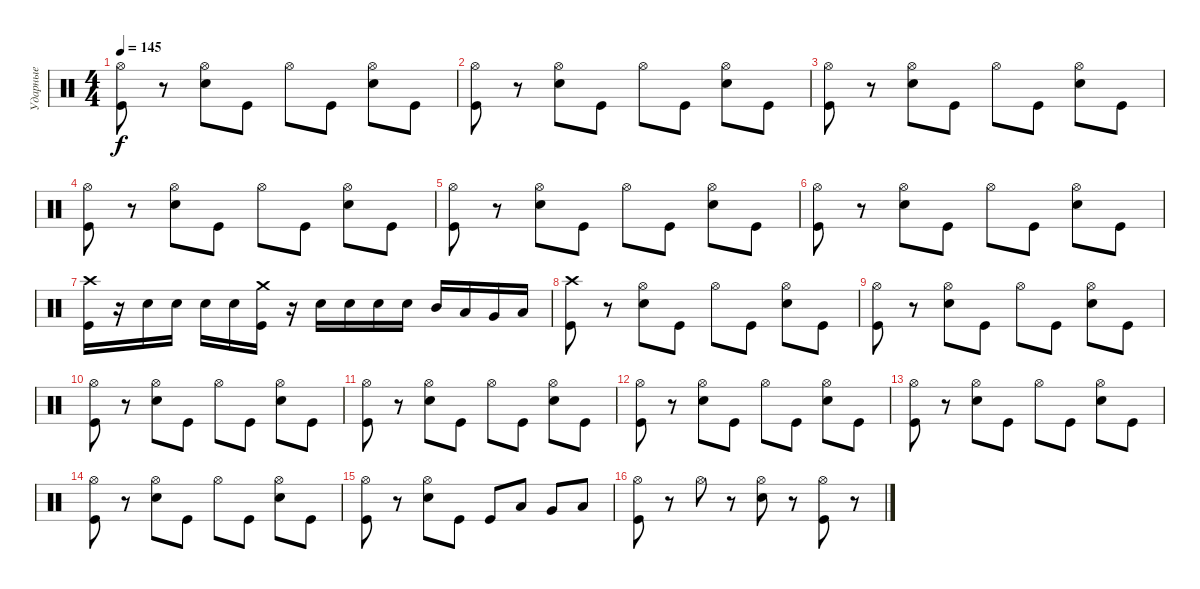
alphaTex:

\track ("Ударные" "Ударные") {instrument percussion}
\staff {score}
\articulation defaults
\ts (4 4)
\tempo 145
\clef neutral
\ks c
("Hi-Hat (open)" "Kick (hit)").8{dy f} r.8 ("Hi-Hat (open)" "Electric Snare (hit)").8 "Kick (hit)".8 "Hi-Hat (open)".8 "Kick (hit)".8 ("Hi-Hat (open)" "Electric Snare (hit)").8 "Kick (hit)".8 |
("Hi-Hat (open)" "Kick (hit)").8 r.8 ("Hi-Hat (open)" "Electric Snare (hit)").8 "Kick (hit)".8 "Hi-Hat (open)".8 "Kick (hit)".8 ("Hi-Hat (open)" "Electric Snare (hit)").8 "Kick (hit)".8 |
("Hi-Hat (open)" "Kick (hit)").8 r.8 ("Hi-Hat (open)" "Electric Snare (hit)").8 "Kick (hit)".8 "Hi-Hat (open)".8 "Kick (hit)".8 ("Hi-Hat (open)" "Electric Snare (hit)").8 "Kick (hit)".8 |
("Hi-Hat (open)" "Kick (hit)").8 r.8 ("Hi-Hat (open)" "Electric Snare (hit)").8 "Kick (hit)".8 "Hi-Hat (open)".8 "Kick (hit)".8 ("Hi-Hat (open)" "Electric Snare (hit)").8 "Kick (hit)".8 |
("Hi-Hat (open)" "Kick (hit)").8 r.8 ("Hi-Hat (open)" "Electric Snare (hit)").8 "Kick (hit)".8 "Hi-Hat (open)".8 "Kick (hit)".8 ("Hi-Hat (open)" "Electric Snare (hit)").8 "Kick (hit)".8 |
("Hi-Hat (open)" "Kick (hit)").8 r.8 ("Hi-Hat (open)" "Electric Snare (hit)").8 "Kick (hit)".8 "Hi-Hat (open)".8 "Kick (hit)".8 ("Hi-Hat (open)" "Electric Snare (hit)").8 "Kick (hit)".8 |
("Crash high (hit)" "Kick (hit)").16 r.16 "Electric Snare (hit)".16 "Electric Snare (hit)".16 "Electric Snare (hit)".16 "Electric Snare (hit)".16 ("Crash medium (hit)" "Kick (hit)").16 r.16 "Electric Snare (hit)".16 "Electric Snare (hit)".16 "Electric Snare (hit)".16 "Electric Snare (hit)".16 "Mid Tom (hit)".16 "Low Tom (hit)".16 "Very Low Tom (hit)".16 "Low Floor Tom (hit)".16 |
("Crash high (hit)" "Kick (hit)").8 r.8 ("Hi-Hat (open)" "Electric Snare (hit)").8 "Kick (hit)".8 "Hi-Hat (open)".8 "Kick (hit)".8 ("Hi-Hat (open)" "Electric Snare (hit)").8 "Kick (hit)".8 |
("Hi-Hat (open)" "Kick (hit)").8 r.8 ("Hi-Hat (open)" "Electric Snare (hit)").8 "Kick (hit)".8 "Hi-Hat (open)".8 "Kick (hit)".8 ("Hi-Hat (open)" "Electric Snare (hit)").8 "Kick (hit)".8 |
("Hi-Hat (open)" "Kick (hit)").8 r.8 ("Hi-Hat (open)" "Electric Snare (hit)").8 "Kick (hit)".8 "Hi-Hat (open)".8 "Kick (hit)".8 ("Hi-Hat (open)" "Electric Snare (hit)").8 "Kick (hit)".8 |
("Hi-Hat (open)" "Kick (hit)").8 r.8 ("Hi-Hat (open)" "Electric Snare (hit)").8 "Kick (hit)".8 "Hi-Hat (open)".8 "Kick (hit)".8 ("Hi-Hat (open)" "Electric Snare (hit)").8 "Kick (hit)".8 |
("Hi-Hat (open)" "Kick (hit)").8 r.8 ("Hi-Hat (open)" "Electric Snare (hit)").8 "Kick (hit)".8 "Hi-Hat (open)".8 "Kick (hit)".8 ("Hi-Hat (open)" "Electric Snare (hit)").8 "Kick (hit)".8 |
("Hi-Hat (open)" "Kick (hit)").8 r.8 ("Hi-Hat (open)" "Electric Snare (hit)").8 "Kick (hit)".8 "Hi-Hat (open)".8 "Kick (hit)".8 ("Hi-Hat (open)" "Electric Snare (hit)").8 "Kick (hit)".8 |
("Hi-Hat (open)" "Kick (hit)").8 r.8 ("Hi-Hat (open)" "Electric Snare (hit)").8 "Kick (hit)".8 "Hi-Hat (open)".8 "Kick (hit)".8 ("Hi-Hat (open)" "Electric Snare (hit)").8 "Kick (hit)".8 |
("Hi-Hat (open)" "Kick (hit)").8 r.8 ("Hi-Hat (open)" "Electric Snare (hit)").8 "Kick (hit)".8 "Kick (hit)".8 "Low Tom (hit)".8 "Very Low Tom (hit)".8 "Low Floor Tom (hit)".8 |
("Hi-Hat (open)" "Kick (hit)").8{volume 11} r.8 "Hi-Hat (open)".8 r.8 ("Hi-Hat (open)" "Electric Snare (hit)").8 r.8 ("Hi-Hat (open)" "Kick (hit)").8 r.8
